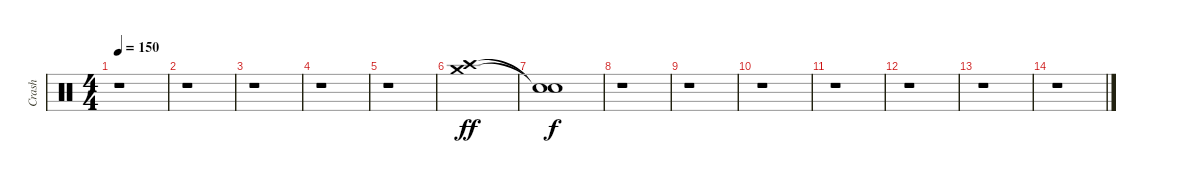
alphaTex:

\track ("Crash" "Crash") {instrument percussion}
\staff {score}
\articulation defaults
\ts (4 4)
\tempo 150
\clef neutral
\ks c
r.1{dy f} |
r.1 |
r.1 |
r.1 |
r.1 |
("Crash high (hit)" "Crash medium (hit)").1{dy ff} |
("Snare (hit)"{t} "Snare (hit)"{t}).1{dy f} |
r.1 |
r.1 |
r.1 |
r.1 |
r.1 |
r.1 |
r.1
